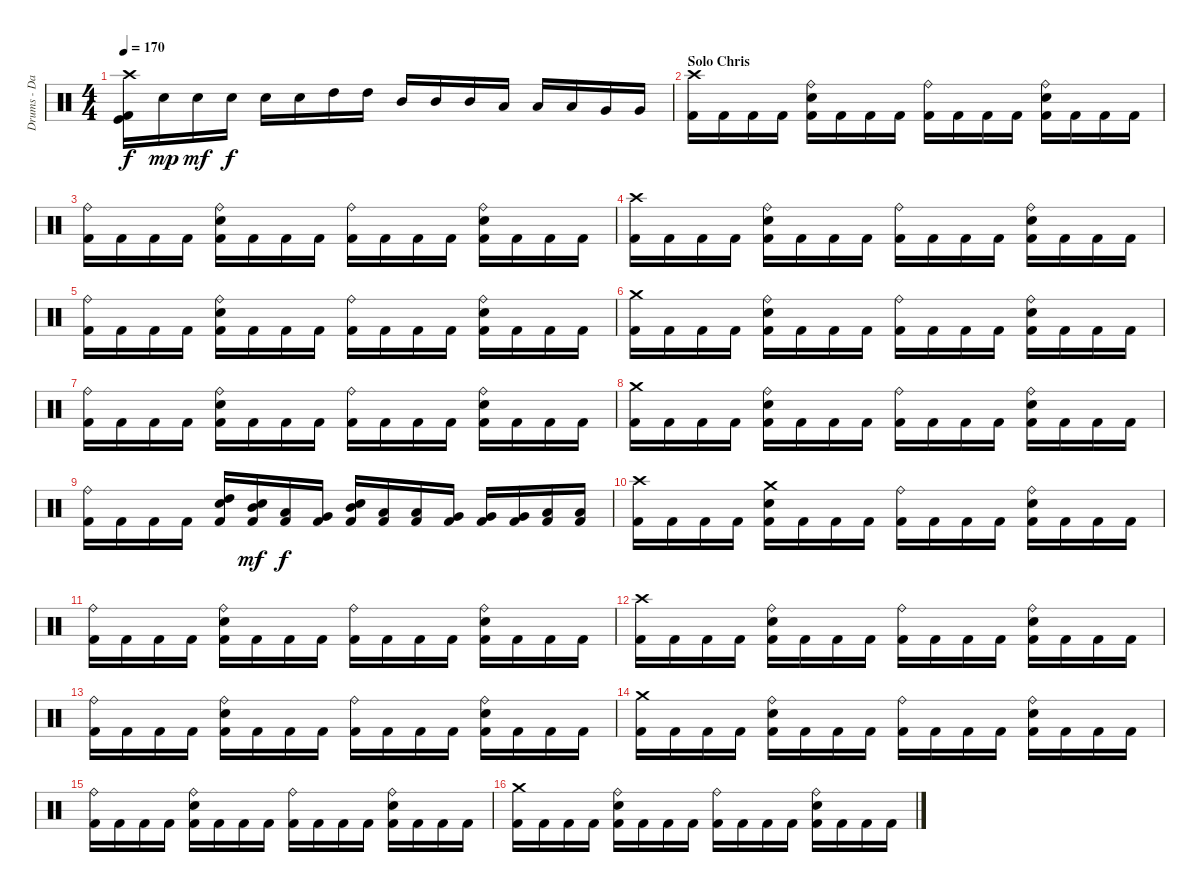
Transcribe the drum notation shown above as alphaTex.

\track ("Drums - Daniel Zimmermann" "Drums - Da") {instrument percussion}
\staff {score}
\articulation defaults
\ts (4 4)
\tempo 170
\clef neutral
\ks c
("Kick (hit) 2" "Kick (hit)" "Crash high (hit)").16{dy f} "Electric Snare (hit)".16{dy mp} "Electric Snare (hit)".16{dy mf} "Electric Snare (hit)".16{dy f} "Electric Snare (hit)".16 "Electric Snare (hit)".16 "High Tom (hit)".16 "High Tom (hit)".16 "Mid Tom (hit)".16 "Mid Tom (hit)".16 "Mid Tom (hit)".16 "Low Tom (hit)".16 "Low Tom (hit)".16 "Low Tom (hit)".16 "Very Low Tom (hit)".16 "Very Low Tom (hit)".16 |
\section ("" "Solo Chris")
("Kick (hit) 2" "Crash high (hit)").16 "Kick (hit) 2".16 "Kick (hit) 2".16 "Kick (hit) 2".16 ("Kick (hit) 2" "Electric Snare (hit)" "Ride (bell)").16 "Kick (hit) 2".16 "Kick (hit) 2".16 "Kick (hit) 2".16 ("Kick (hit) 2" "Ride (bell)").16 "Kick (hit) 2".16 "Kick (hit) 2".16 "Kick (hit) 2".16 ("Kick (hit) 2" "Electric Snare (hit)" "Ride (bell)").16 "Kick (hit) 2".16 "Kick (hit) 2".16 "Kick (hit) 2".16 |
("Kick (hit) 2" "Ride (bell)").16 "Kick (hit) 2".16 "Kick (hit) 2".16 "Kick (hit) 2".16 ("Kick (hit) 2" "Electric Snare (hit)" "Ride (bell)").16 "Kick (hit) 2".16 "Kick (hit) 2".16 "Kick (hit) 2".16 ("Kick (hit) 2" "Ride (bell)").16 "Kick (hit) 2".16 "Kick (hit) 2".16 "Kick (hit) 2".16 ("Kick (hit) 2" "Electric Snare (hit)" "Ride (bell)").16 "Kick (hit) 2".16 "Kick (hit) 2".16 "Kick (hit) 2".16 |
("Kick (hit) 2" "Crash high (hit)").16 "Kick (hit) 2".16 "Kick (hit) 2".16 "Kick (hit) 2".16 ("Kick (hit) 2" "Electric Snare (hit)" "Ride (bell)").16 "Kick (hit) 2".16 "Kick (hit) 2".16 "Kick (hit) 2".16 ("Kick (hit) 2" "Ride (bell)").16 "Kick (hit) 2".16 "Kick (hit) 2".16 "Kick (hit) 2".16 ("Kick (hit) 2" "Electric Snare (hit)" "Ride (bell)").16 "Kick (hit) 2".16 "Kick (hit) 2".16 "Kick (hit) 2".16 |
("Kick (hit) 2" "Ride (bell)").16 "Kick (hit) 2".16 "Kick (hit) 2".16 "Kick (hit) 2".16 ("Kick (hit) 2" "Electric Snare (hit)" "Ride (bell)").16 "Kick (hit) 2".16 "Kick (hit) 2".16 "Kick (hit) 2".16 ("Kick (hit) 2" "Ride (bell)").16 "Kick (hit) 2".16 "Kick (hit) 2".16 "Kick (hit) 2".16 ("Kick (hit) 2" "Electric Snare (hit)" "Ride (bell)").16 "Kick (hit) 2".16 "Kick (hit) 2".16 "Kick (hit) 2".16 |
("Kick (hit) 2" "Crash medium (hit)").16 "Kick (hit) 2".16 "Kick (hit) 2".16 "Kick (hit) 2".16 ("Kick (hit) 2" "Electric Snare (hit)" "Ride (bell)").16 "Kick (hit) 2".16 "Kick (hit) 2".16 "Kick (hit) 2".16 ("Kick (hit) 2" "Ride (bell)").16 "Kick (hit) 2".16 "Kick (hit) 2".16 "Kick (hit) 2".16 ("Kick (hit) 2" "Electric Snare (hit)" "Ride (bell)").16 "Kick (hit) 2".16 "Kick (hit) 2".16 "Kick (hit) 2".16 |
("Kick (hit) 2" "Ride (bell)").16 "Kick (hit) 2".16 "Kick (hit) 2".16 "Kick (hit) 2".16 ("Kick (hit) 2" "Electric Snare (hit)" "Ride (bell)").16 "Kick (hit) 2".16 "Kick (hit) 2".16 "Kick (hit) 2".16 ("Kick (hit) 2" "Ride (bell)").16 "Kick (hit) 2".16 "Kick (hit) 2".16 "Kick (hit) 2".16 ("Kick (hit) 2" "Electric Snare (hit)" "Ride (bell)").16 "Kick (hit) 2".16 "Kick (hit) 2".16 "Kick (hit) 2".16 |
("Kick (hit) 2" "Crash medium (hit)").16 "Kick (hit) 2".16 "Kick (hit) 2".16 "Kick (hit) 2".16 ("Kick (hit) 2" "Electric Snare (hit)" "Ride (bell)").16 "Kick (hit) 2".16 "Kick (hit) 2".16 "Kick (hit) 2".16 ("Kick (hit) 2" "Ride (bell)").16 "Kick (hit) 2".16 "Kick (hit) 2".16 "Kick (hit) 2".16 ("Kick (hit) 2" "Electric Snare (hit)" "Ride (bell)").16 "Kick (hit) 2".16 "Kick (hit) 2".16 "Kick (hit) 2".16 |
("Kick (hit) 2" "Ride (bell)").16 "Kick (hit) 2".16 "Kick (hit) 2".16 "Kick (hit) 2".16 ("Kick (hit) 2" "Electric Snare (hit)" "High Tom (hit)").16 ("Kick (hit) 2" "Electric Snare (hit)" "Mid Tom (hit)").16{dy mf} ("Kick (hit) 2" "Low Tom (hit)").16{dy f} ("Kick (hit) 2" "Very Low Tom (hit)").16 ("Kick (hit) 2" "Electric Snare (hit)" "Mid Tom (hit)").16 ("Kick (hit) 2" "Low Tom (hit)").16 ("Kick (hit) 2" "Low Tom (hit)").16 ("Kick (hit) 2" "Very Low Tom (hit)").16 ("Kick (hit) 2" "Very Low Tom (hit)").16 ("Kick (hit) 2" "Very Low Tom (hit)").16 ("Kick (hit) 2" "Low Floor Tom (hit)").16 ("Kick (hit) 2" "Low Floor Tom (hit)").16 |
("Kick (hit) 2" "Crash high (hit)").16 "Kick (hit) 2".16 "Kick (hit) 2".16 "Kick (hit) 2".16 ("Kick (hit) 2" "Electric Snare (hit)" "Crash medium (hit)").16 "Kick (hit) 2".16 "Kick (hit) 2".16 "Kick (hit) 2".16 ("Kick (hit) 2" "Ride (bell)").16 "Kick (hit) 2".16 "Kick (hit) 2".16 "Kick (hit) 2".16 ("Kick (hit) 2" "Electric Snare (hit)" "Ride (bell)").16 "Kick (hit) 2".16 "Kick (hit) 2".16 "Kick (hit) 2".16 |
("Kick (hit) 2" "Ride (bell)").16 "Kick (hit) 2".16 "Kick (hit) 2".16 "Kick (hit) 2".16 ("Kick (hit) 2" "Electric Snare (hit)" "Ride (bell)").16 "Kick (hit) 2".16 "Kick (hit) 2".16 "Kick (hit) 2".16 ("Kick (hit) 2" "Ride (bell)").16 "Kick (hit) 2".16 "Kick (hit) 2".16 "Kick (hit) 2".16 ("Kick (hit) 2" "Electric Snare (hit)" "Ride (bell)").16 "Kick (hit) 2".16 "Kick (hit) 2".16 "Kick (hit) 2".16 |
("Kick (hit) 2" "Crash high (hit)").16 "Kick (hit) 2".16 "Kick (hit) 2".16 "Kick (hit) 2".16 ("Kick (hit) 2" "Electric Snare (hit)" "Ride (bell)").16 "Kick (hit) 2".16 "Kick (hit) 2".16 "Kick (hit) 2".16 ("Kick (hit) 2" "Ride (bell)").16 "Kick (hit) 2".16 "Kick (hit) 2".16 "Kick (hit) 2".16 ("Kick (hit) 2" "Electric Snare (hit)" "Ride (bell)").16 "Kick (hit) 2".16 "Kick (hit) 2".16 "Kick (hit) 2".16 |
("Kick (hit) 2" "Ride (bell)").16 "Kick (hit) 2".16 "Kick (hit) 2".16 "Kick (hit) 2".16 ("Kick (hit) 2" "Electric Snare (hit)" "Ride (bell)").16 "Kick (hit) 2".16 "Kick (hit) 2".16 "Kick (hit) 2".16 ("Kick (hit) 2" "Ride (bell)").16 "Kick (hit) 2".16 "Kick (hit) 2".16 "Kick (hit) 2".16 ("Kick (hit) 2" "Electric Snare (hit)" "Ride (bell)").16 "Kick (hit) 2".16 "Kick (hit) 2".16 "Kick (hit) 2".16 |
("Kick (hit) 2" "Crash medium (hit)").16 "Kick (hit) 2".16 "Kick (hit) 2".16 "Kick (hit) 2".16 ("Kick (hit) 2" "Electric Snare (hit)" "Ride (bell)").16 "Kick (hit) 2".16 "Kick (hit) 2".16 "Kick (hit) 2".16 ("Kick (hit) 2" "Ride (bell)").16 "Kick (hit) 2".16 "Kick (hit) 2".16 "Kick (hit) 2".16 ("Kick (hit) 2" "Electric Snare (hit)" "Ride (bell)").16 "Kick (hit) 2".16 "Kick (hit) 2".16 "Kick (hit) 2".16 |
("Kick (hit) 2" "Ride (bell)").16 "Kick (hit) 2".16 "Kick (hit) 2".16 "Kick (hit) 2".16 ("Kick (hit) 2" "Electric Snare (hit)" "Ride (bell)").16 "Kick (hit) 2".16 "Kick (hit) 2".16 "Kick (hit) 2".16 ("Kick (hit) 2" "Ride (bell)").16 "Kick (hit) 2".16 "Kick (hit) 2".16 "Kick (hit) 2".16 ("Kick (hit) 2" "Electric Snare (hit)" "Ride (bell)").16 "Kick (hit) 2".16 "Kick (hit) 2".16 "Kick (hit) 2".16 |
("Kick (hit) 2" "Crash medium (hit)").16 "Kick (hit) 2".16 "Kick (hit) 2".16 "Kick (hit) 2".16 ("Kick (hit) 2" "Electric Snare (hit)" "Ride (bell)").16 "Kick (hit) 2".16 "Kick (hit) 2".16 "Kick (hit) 2".16 ("Kick (hit) 2" "Ride (bell)").16 "Kick (hit) 2".16 "Kick (hit) 2".16 "Kick (hit) 2".16 ("Kick (hit) 2" "Electric Snare (hit)" "Ride (bell)").16 "Kick (hit) 2".16 "Kick (hit) 2".16 "Kick (hit) 2".16
